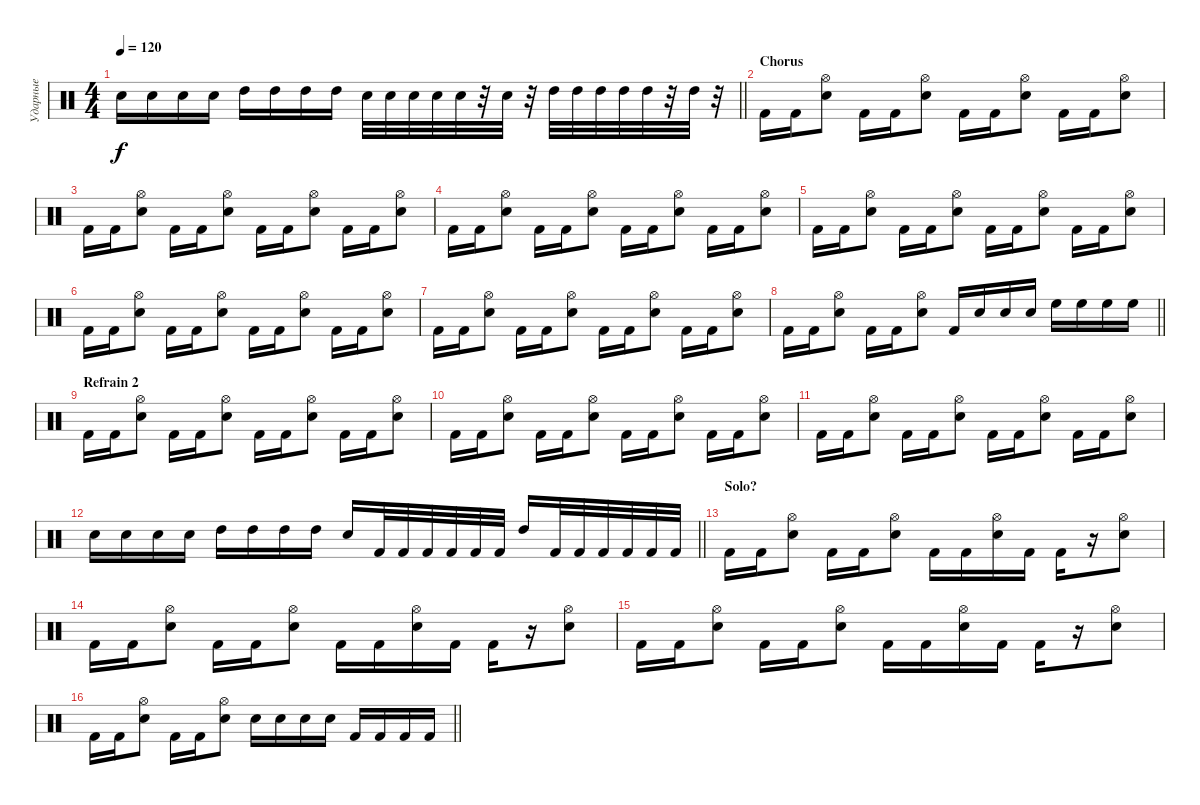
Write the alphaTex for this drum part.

\track ("Ударные" "Ударные") {instrument percussion}
\staff {score}
\articulation defaults
\ts (4 4)
\tempo 120
\clef neutral
\barLineRight lightlight
\ks c "Electric Snare (hit)".16{dy f} "Electric Snare (hit)".16 "Electric Snare (hit)".16 "Electric Snare (hit)".16 "High Tom (hit)".16 "High Tom (hit)".16 "High Tom (hit)".16 "High Tom (hit)".16 "Electric Snare (hit)".32 "Electric Snare (hit)".32 "Electric Snare (hit)".32 "Electric Snare (hit)".32 "Electric Snare (hit)".32
r.32 "Electric Snare (hit)".32 r.32 "High Tom (hit)".32 "High Tom (hit)".32 "High Tom (hit)".32 "High Tom (hit)".32 "High Tom (hit)".32 r.32 "High Tom (hit)".32 r.32 |
\section ("" "Chorus")
"Kick (hit) 2".16 "Kick (hit) 2".16 ("Electric Snare (hit)" "Hi-Hat (open)").8 "Kick (hit) 2".16 "Kick (hit) 2".16 ("Electric Snare (hit)" "Hi-Hat (open)").8 "Kick (hit) 2".16 "Kick (hit) 2".16 ("Electric Snare (hit)" "Hi-Hat (open)").8 "Kick (hit) 2".16 "Kick (hit) 2".16 ("Electric Snare (hit)" "Hi-Hat (open)").8 |
"Kick (hit) 2".16 "Kick (hit) 2".16 ("Electric Snare (hit)" "Hi-Hat (open)").8 "Kick (hit) 2".16 "Kick (hit) 2".16 ("Electric Snare (hit)" "Hi-Hat (open)").8 "Kick (hit) 2".16 "Kick (hit) 2".16 ("Electric Snare (hit)" "Hi-Hat (open)").8 "Kick (hit) 2".16 "Kick (hit) 2".16 ("Electric Snare (hit)" "Hi-Hat (open)").8 |
"Kick (hit) 2".16 "Kick (hit) 2".16 ("Electric Snare (hit)" "Hi-Hat (open)").8 "Kick (hit) 2".16 "Kick (hit) 2".16 ("Electric Snare (hit)" "Hi-Hat (open)").8 "Kick (hit) 2".16 "Kick (hit) 2".16 ("Electric Snare (hit)" "Hi-Hat (open)").8 "Kick (hit) 2".16 "Kick (hit) 2".16 ("Electric Snare (hit)" "Hi-Hat (open)").8 |
"Kick (hit) 2".16 "Kick (hit) 2".16 ("Electric Snare (hit)" "Hi-Hat (open)").8 "Kick (hit) 2".16 "Kick (hit) 2".16 ("Electric Snare (hit)" "Hi-Hat (open)").8 "Kick (hit) 2".16 "Kick (hit) 2".16 ("Electric Snare (hit)" "Hi-Hat (open)").8 "Kick (hit) 2".16 "Kick (hit) 2".16 ("Electric Snare (hit)" "Hi-Hat (open)").8 |
"Kick (hit) 2".16 "Kick (hit) 2".16 ("Electric Snare (hit)" "Hi-Hat (open)").8 "Kick (hit) 2".16 "Kick (hit) 2".16 ("Electric Snare (hit)" "Hi-Hat (open)").8 "Kick (hit) 2".16 "Kick (hit) 2".16 ("Electric Snare (hit)" "Hi-Hat (open)").8 "Kick (hit) 2".16 "Kick (hit) 2".16 ("Electric Snare (hit)" "Hi-Hat (open)").8 |
"Kick (hit) 2".16 "Kick (hit) 2".16 ("Electric Snare (hit)" "Hi-Hat (open)").8 "Kick (hit) 2".16 "Kick (hit) 2".16 ("Electric Snare (hit)" "Hi-Hat (open)").8 "Kick (hit) 2".16 "Kick (hit) 2".16 ("Electric Snare (hit)" "Hi-Hat (open)").8 "Kick (hit) 2".16 "Kick (hit) 2".16 ("Electric Snare (hit)" "Hi-Hat (open)").8 |
\barLineRight lightlight "Kick (hit) 2".16 "Kick (hit) 2".16
("Electric Snare (hit)" "Hi-Hat (open)").8 "Kick (hit) 2".16 "Kick (hit) 2".16 ("Electric Snare (hit)" "Hi-Hat (open)").8 "Kick (hit) 2".16 "Electric Snare (hit)".16 "Electric Snare (hit)".16 "Electric Snare (hit)".16 "High Floor Tom (hit)".16 "High Floor Tom (hit)".16 "High Floor Tom (hit)".16 "High Floor Tom (hit)".16 |
\section ("" "Refrain 2")
"Kick (hit) 2".16 "Kick (hit) 2".16 ("Electric Snare (hit)" "Hi-Hat (open)").8 "Kick (hit) 2".16 "Kick (hit) 2".16 ("Electric Snare (hit)" "Hi-Hat (open)").8 "Kick (hit) 2".16 "Kick (hit) 2".16 ("Electric Snare (hit)" "Hi-Hat (open)").8 "Kick (hit) 2".16 "Kick (hit) 2".16 ("Electric Snare (hit)" "Hi-Hat (open)").8 |
"Kick (hit) 2".16 "Kick (hit) 2".16 ("Electric Snare (hit)" "Hi-Hat (open)").8 "Kick (hit) 2".16 "Kick (hit) 2".16 ("Electric Snare (hit)" "Hi-Hat (open)").8 "Kick (hit) 2".16 "Kick (hit) 2".16 ("Electric Snare (hit)" "Hi-Hat (open)").8 "Kick (hit) 2".16 "Kick (hit) 2".16 ("Electric Snare (hit)" "Hi-Hat (open)").8 |
"Kick (hit) 2".16 "Kick (hit) 2".16 ("Electric Snare (hit)" "Hi-Hat (open)").8 "Kick (hit) 2".16 "Kick (hit) 2".16 ("Electric Snare (hit)" "Hi-Hat (open)").8 "Kick (hit) 2".16 "Kick (hit) 2".16 ("Electric Snare (hit)" "Hi-Hat (open)").8 "Kick (hit) 2".16 "Kick (hit) 2".16 ("Electric Snare (hit)" "Hi-Hat (open)").8 |
\barLineRight lightlight "Electric Snare (hit)".16 "Electric Snare (hit)".16 "Electric Snare (hit)".16 "Electric Snare (hit)".16 "High Tom (hit)".16 "High Tom (hit)".16 "High Tom (hit)".16 "High Tom (hit)".16 "Electric Snare (hit)".16 "Kick (hit) 2".32 "Kick (hit) 2".32 "Kick (hit) 2".32 "Kick (hit) 2".32 "Kick (hit) 2".32 "Kick (hit) 2".32 "High Tom (hit)".16 "Kick (hit) 2".32 "Kick (hit) 2".32 "Kick (hit) 2".32 "Kick (hit) 2".32 "Kick (hit) 2".32 "Kick (hit) 2".32
|
\section ("" "Solo?")
"Kick (hit) 2".16 "Kick (hit) 2".16 ("Electric Snare (hit)" "Hi-Hat (open)").8 "Kick (hit) 2".16 "Kick (hit) 2".16 ("Electric Snare (hit)" "Hi-Hat (open)").8 "Kick (hit) 2".16 "Kick (hit) 2".16 ("Electric Snare (hit)" "Hi-Hat (open)").16 "Kick (hit) 2".16 "Kick (hit) 2".16 r.16 ("Electric Snare (hit)" "Hi-Hat (open)").8 |
"Kick (hit) 2".16 "Kick (hit) 2".16 ("Electric Snare (hit)" "Hi-Hat (open)").8 "Kick (hit) 2".16 "Kick (hit) 2".16 ("Electric Snare (hit)" "Hi-Hat (open)").8 "Kick (hit) 2".16 "Kick (hit) 2".16 ("Electric Snare (hit)" "Hi-Hat (open)").16 "Kick (hit) 2".16 "Kick (hit) 2".16 r.16 ("Electric Snare (hit)" "Hi-Hat (open)").8 |
"Kick (hit) 2".16 "Kick (hit) 2".16 ("Electric Snare (hit)" "Hi-Hat (open)").8 "Kick (hit) 2".16 "Kick (hit) 2".16 ("Electric Snare (hit)" "Hi-Hat (open)").8 "Kick (hit) 2".16 "Kick (hit) 2".16 ("Electric Snare (hit)" "Hi-Hat (open)").16 "Kick (hit) 2".16 "Kick (hit) 2".16 r.16 ("Electric Snare (hit)" "Hi-Hat (open)").8 |
\barLineRight lightlight "Kick (hit) 2".16 "Kick (hit) 2".16
("Electric Snare (hit)" "Hi-Hat (open)").8 "Kick (hit) 2".16 "Kick (hit) 2".16 ("Electric Snare (hit)" "Hi-Hat (open)").8 "Electric Snare (hit)".16 "Electric Snare (hit)".16 "Electric Snare (hit)".16 "Electric Snare (hit)".16 "Kick (hit) 2".16 "Kick (hit) 2".16 "Kick (hit) 2".16 "Kick (hit) 2".16
